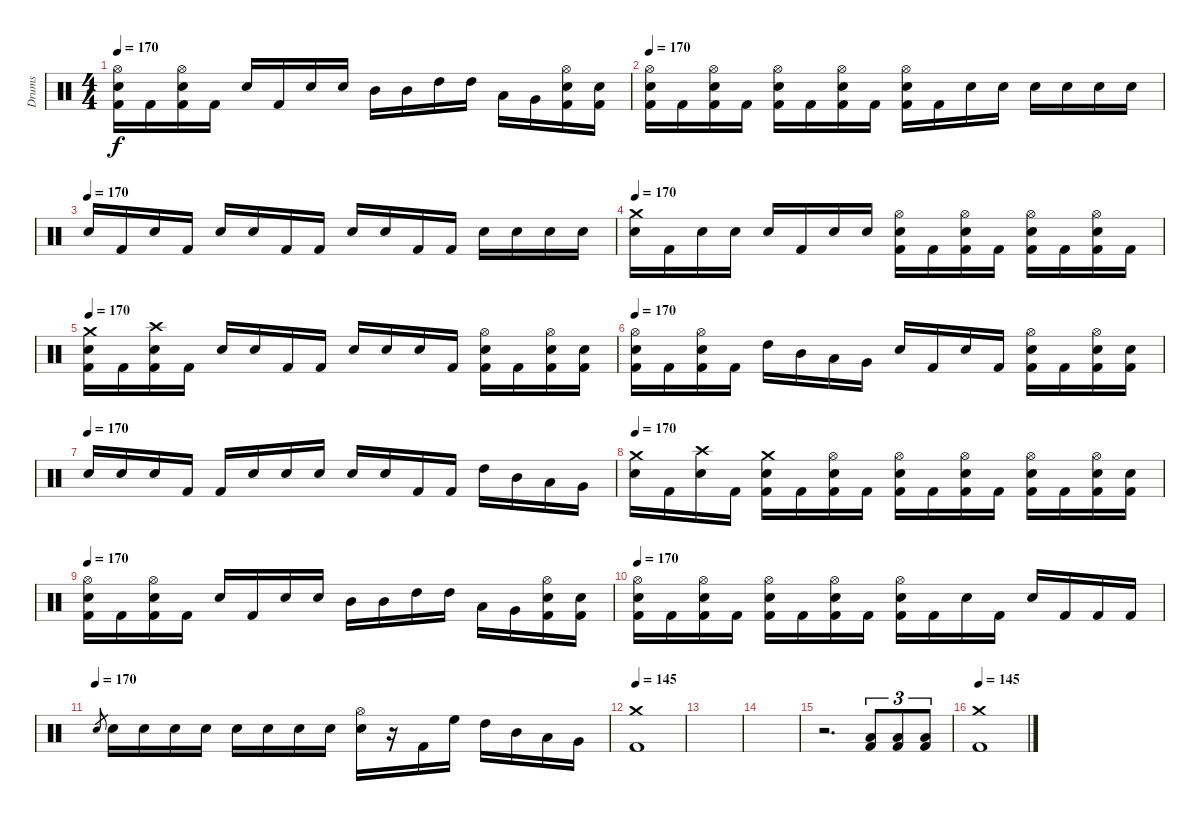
\track ("Drums" "Drums") {instrument percussion}
\staff {score}
\articulation defaults
\ts (4 4)
\tempo 170
\clef neutral
\ks c
("Hi-Hat (open)" "Electric Snare (hit)" "Kick (hit) 2").16{dy f} "Kick (hit) 2".16 ("Hi-Hat (open)" "Electric Snare (hit)" "Kick (hit) 2").16 "Kick (hit) 2".16 "Electric Snare (hit)".16 "Kick (hit) 2".16 "Electric Snare (hit)".16 "Electric Snare (hit)".16 "Mid Tom (hit)".16 "Mid Tom (hit)".16 "High Tom (hit)".16 "High Tom (hit)".16 "Low Tom (hit)".16 "Very Low Tom (hit)".16 ("Hi-Hat (open)" "Electric Snare (hit)" "Kick (hit) 2").16 ("Electric Snare (hit)" "Kick (hit) 2").16 |
\tempo 170
("Hi-Hat (open)" "Electric Snare (hit)" "Kick (hit) 2").16 "Kick (hit) 2".16 ("Hi-Hat (open)" "Electric Snare (hit)" "Kick (hit) 2").16 "Kick (hit) 2".16 ("Hi-Hat (open)" "Electric Snare (hit)" "Kick (hit) 2").16 "Kick (hit) 2".16 ("Hi-Hat (open)" "Electric Snare (hit)" "Kick (hit) 2").16 "Kick (hit) 2".16 ("Hi-Hat (open)" "Electric Snare (hit)" "Kick (hit) 2").16 "Kick (hit) 2".16 "Electric Snare (hit)".16 "Electric Snare (hit)".16 "Electric Snare (hit)".16 "Electric Snare (hit)".16 "Electric Snare (hit)".16 "Electric Snare (hit)".16 |
\tempo (170)
"Electric Snare (hit)".16 "Kick (hit) 2".16 "Electric Snare (hit)".16 "Kick (hit) 2".16 "Electric Snare (hit)".16 "Electric Snare (hit)".16 "Kick (hit) 2".16 "Kick (hit) 2".16 "Electric Snare (hit)".16 "Electric Snare (hit)".16 "Kick (hit) 2".16 "Kick (hit) 2".16 "Electric Snare (hit)".16 "Electric Snare (hit)".16 "Electric Snare (hit)".16 "Electric Snare (hit)".16 |
\tempo 170
("Crash medium (hit)" "Electric Snare (hit)").16 "Kick (hit) 2".16 "Electric Snare (hit)".16 "Electric Snare (hit)".16 "Electric Snare (hit)".16 "Kick (hit) 2".16 "Electric Snare (hit)".16 "Electric Snare (hit)".16 ("Hi-Hat (open)" "Electric Snare (hit)" "Kick (hit) 2").16 "Kick (hit) 2".16 ("Hi-Hat (open)" "Electric Snare (hit)" "Kick (hit) 2").16 "Kick (hit) 2".16 ("Hi-Hat (open)" "Electric Snare (hit)" "Kick (hit) 2").16 "Kick (hit) 2".16 ("Hi-Hat (open)" "Electric Snare (hit)" "Kick (hit) 2").16 "Kick (hit) 2".16 |
\tempo 170
("Crash medium (hit)" "Electric Snare (hit)" "Kick (hit) 2").16 "Kick (hit) 2".16 ("Crash high (hit)" "Electric Snare (hit)" "Kick (hit) 2").16 "Kick (hit) 2".16 "Electric Snare (hit)".16 "Electric Snare (hit)".16 "Kick (hit) 2".16 "Kick (hit) 2".16 "Electric Snare (hit)".16 "Electric Snare (hit)".16 "Electric Snare (hit)".16 "Kick (hit) 2".16 ("Hi-Hat (open)" "Electric Snare (hit)" "Kick (hit) 2").16 "Kick (hit) 2".16 ("Hi-Hat (open)" "Electric Snare (hit)" "Kick (hit) 2").16 ("Electric Snare (hit)" "Kick (hit) 2").16 |
\tempo 170
("Hi-Hat (open)" "Electric Snare (hit)" "Kick (hit) 2").16 "Kick (hit) 2".16 ("Hi-Hat (open)" "Electric Snare (hit)" "Kick (hit) 2").16 "Kick (hit) 2".16 "High Tom (hit)".16 "Mid Tom (hit)".16 "Low Tom (hit)".16 "Very Low Tom (hit)".16 "Electric Snare (hit)".16 "Kick (hit) 2".16 "Electric Snare (hit)".16 "Kick (hit) 2".16 ("Hi-Hat (open)" "Electric Snare (hit)" "Kick (hit) 2").16 "Kick (hit) 2".16 ("Hi-Hat (open)" "Electric Snare (hit)" "Kick (hit) 2").16 ("Electric Snare (hit)" "Kick (hit) 2").16 |
\tempo (170)
"Electric Snare (hit)".16 "Electric Snare (hit)".16 "Electric Snare (hit)".16 "Kick (hit) 2".16 "Kick (hit) 2".16 "Electric Snare (hit)".16 "Electric Snare (hit)".16 "Electric Snare (hit)".16 "Electric Snare (hit)".16 "Electric Snare (hit)".16 "Kick (hit) 2".16 "Kick (hit) 2".16 "High Tom (hit)".16 "Mid Tom (hit)".16 "Low Tom (hit)".16 "Very Low Tom (hit)".16 |
\tempo 170
("Crash medium (hit)" "Electric Snare (hit)").16 "Kick (hit) 2".16 ("Crash high (hit)" "Electric Snare (hit)").16 "Kick (hit) 2".16 ("Crash medium (hit)" "Electric Snare (hit)" "Kick (hit) 2").16 "Kick (hit) 2".16 ("Hi-Hat (open)" "Electric Snare (hit)" "Kick (hit) 2").16 "Kick (hit) 2".16 ("Hi-Hat (open)" "Electric Snare (hit)" "Kick (hit) 2").16 "Kick (hit) 2".16 ("Hi-Hat (open)" "Electric Snare (hit)" "Kick (hit) 2").16 "Kick (hit) 2".16 ("Hi-Hat (open)" "Electric Snare (hit)" "Kick (hit) 2").16 "Kick (hit) 2".16 ("Hi-Hat (open)" "Electric Snare (hit)" "Kick (hit) 2").16 ("Electric Snare (hit)" "Kick (hit) 2").16 |
\tempo 170
("Hi-Hat (open)" "Electric Snare (hit)" "Kick (hit) 2").16 "Kick (hit) 2".16 ("Hi-Hat (open)" "Electric Snare (hit)" "Kick (hit) 2").16 "Kick (hit) 2".16 "Electric Snare (hit)".16 "Kick (hit) 2".16 "Electric Snare (hit)".16 "Electric Snare (hit)".16 "Mid Tom (hit)".16 "Mid Tom (hit)".16 "High Tom (hit)".16 "High Tom (hit)".16 "Low Tom (hit)".16 "Very Low Tom (hit)".16 ("Hi-Hat (open)" "Electric Snare (hit)" "Kick (hit) 2").16 ("Electric Snare (hit)" "Kick (hit) 2").16 |
\tempo 170
("Hi-Hat (open)" "Electric Snare (hit)" "Kick (hit) 2").16 "Kick (hit) 2".16 ("Hi-Hat (open)" "Electric Snare (hit)" "Kick (hit) 2").16 "Kick (hit) 2".16 ("Hi-Hat (open)" "Electric Snare (hit)" "Kick (hit) 2").16 "Kick (hit) 2".16 ("Hi-Hat (open)" "Electric Snare (hit)" "Kick (hit) 2").16 "Kick (hit) 2".16 ("Hi-Hat (open)" "Electric Snare (hit)" "Kick (hit) 2").16 "Kick (hit) 2".16 "Electric Snare (hit)".16 "Kick (hit) 2".16 "Electric Snare (hit)".16 "Kick (hit) 2".16 "Kick (hit) 2".16 "Kick (hit) 2".16 |
\tempo (170)
"Electric Snare (hit)".8{gr} "Electric Snare (hit)".16 "Electric Snare (hit)".16 "Electric Snare (hit)".16 "Electric Snare (hit)".16 "Electric Snare (hit)".16 "Electric Snare (hit)".16 "Electric Snare (hit)".16 "Electric Snare (hit)".16 ("Hi-Hat (open)" "Electric Snare (hit)").16 r.16 "Kick (hit) 2".16 "High Floor Tom (hit)".16 "High Tom (hit)".16 "Mid Tom (hit)".16 "Low Tom (hit)".16 "Very Low Tom (hit)".16 |
\tempo 145
("Crash medium (hit)" "Kick (hit) 2").1 |
|
|
r.2{d} ("Low Floor Tom (hit)" "Kick (hit) 2").8{tu (3 2)} ("Low Floor Tom (hit)" "Kick (hit) 2").8{tu (3 2)} ("Low Floor Tom (hit)" "Kick (hit) 2").8{tu (3 2)} |
\tempo 145
("Crash medium (hit)" "Kick (hit) 2").1
